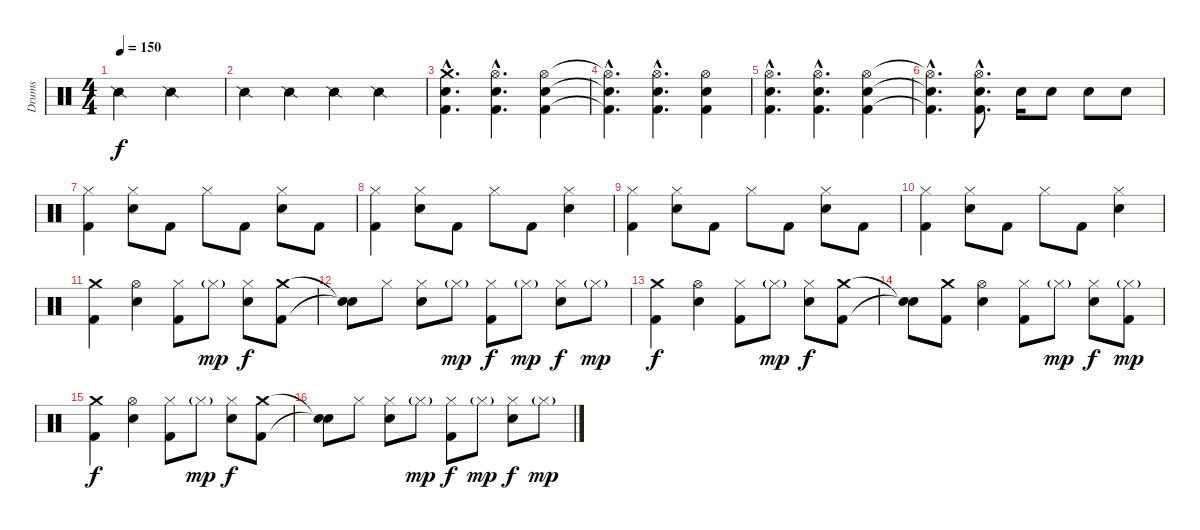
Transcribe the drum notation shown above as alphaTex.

\track ("Drums" "Drums") {instrument percussion}
\staff {score}
\articulation defaults
\ts (4 4)
\tempo 150
\clef neutral
\ks c "Snare (side stick) 2".2{dy f} "Snare (side stick) 2".2
|
"Snare (side stick) 2".4 "Snare (side stick) 2".4 "Snare (side stick) 2".4 "Snare (side stick) 2".4 |
("Crash medium (hit)"{hac} "Electric Snare (hit)"{hac} "Kick (hit) 2"{hac}).4{d} ("Hi-Hat (open)"{hac} "Electric Snare (hit)"{hac} "Kick (hit) 2"{hac}).4{d} ("Hi-Hat (open)" "Electric Snare (hit)" "Kick (hit) 2").4 |
("Hi-Hat (open)"{hac t} "Electric Snare (hit)"{hac t} "Kick (hit) 2"{hac t}).4{d} ("Hi-Hat (open)"{hac} "Electric Snare (hit)"{hac} "Kick (hit) 2"{hac}).4{d} ("Hi-Hat (open)" "Electric Snare (hit)" "Kick (hit) 2").4 |
("Hi-Hat (open)"{hac} "Electric Snare (hit)"{hac} "Kick (hit) 2"{hac}).4{d} ("Hi-Hat (open)"{hac} "Electric Snare (hit)"{hac} "Kick (hit) 2"{hac}).4{d} ("Hi-Hat (open)" "Electric Snare (hit)" "Kick (hit) 2").4 |
("Hi-Hat (open)"{hac t} "Electric Snare (hit)"{hac t} "Kick (hit) 2"{hac t}).4{d} ("Hi-Hat (open)"{hac} "Electric Snare (hit)"{hac} "Kick (hit) 2"{hac}).8{d} "Electric Snare (hit)".16 "Electric Snare (hit)".8 "Electric Snare (hit)".8 "Electric Snare (hit)".8 |
("Hi-Hat (closed)" "Kick (hit) 2").4 ("Hi-Hat (closed)" "Electric Snare (hit)").8 "Kick (hit) 2".8 "Hi-Hat (closed)".8 "Kick (hit) 2".8 ("Hi-Hat (closed)" "Electric Snare (hit)").8 "Kick (hit) 2".8 |
("Hi-Hat (closed)" "Kick (hit) 2").4 ("Hi-Hat (closed)" "Electric Snare (hit)").8 "Kick (hit) 2".8 "Hi-Hat (closed)".8 "Kick (hit) 2".8 ("Hi-Hat (closed)" "Electric Snare (hit)").4 |
("Hi-Hat (closed)" "Kick (hit) 2").4 ("Hi-Hat (closed)" "Electric Snare (hit)").8 "Kick (hit) 2".8 "Hi-Hat (closed)".8 "Kick (hit) 2".8 ("Hi-Hat (closed)" "Electric Snare (hit)").8 "Kick (hit) 2".8 |
("Hi-Hat (closed)" "Kick (hit) 2").4 ("Hi-Hat (closed)" "Electric Snare (hit)").8 "Kick (hit) 2".8 "Hi-Hat (closed)".8 "Kick (hit) 2".8 ("Hi-Hat (closed)" "Electric Snare (hit)").4 |
("Crash medium (hit)" "Kick (hit) 2").4 ("Hi-Hat (open)" "Electric Snare (hit)").4 ("Hi-Hat (closed)" "Kick (hit) 2").8 "Hi-Hat (closed)"{g}.8{dy mp} ("Hi-Hat (closed)" "Electric Snare (hit)").8{dy f} ("Crash medium (hit)" "Kick (hit) 2").8 |
("Snare (hit)"{t} "Snare (hit)"{t}).8 "Hi-Hat (closed)".8 ("Hi-Hat (closed)" "Electric Snare (hit)").8 "Hi-Hat (closed)"{g}.8{dy mp} ("Hi-Hat (closed)" "Kick (hit) 2").8{dy f} "Hi-Hat (closed)"{g}.8{dy mp} ("Hi-Hat (closed)" "Electric Snare (hit)").8{dy f} "Hi-Hat (closed)"{g}.8{dy mp} |
("Crash medium (hit)" "Kick (hit) 2").4{dy f} ("Hi-Hat (open)" "Electric Snare (hit)").4 ("Hi-Hat (closed)" "Kick (hit) 2").8 "Hi-Hat (closed)"{g}.8{dy mp} ("Hi-Hat (closed)" "Electric Snare (hit)").8{dy f} ("Crash medium (hit)" "Kick (hit) 2").8 |
("Snare (hit)"{t} "Snare (hit)"{t}).8 ("Crash medium (hit)" "Kick (hit) 2").8 ("Hi-Hat (open)" "Electric Snare (hit)").4 ("Hi-Hat (closed)" "Kick (hit) 2").8 "Hi-Hat (closed)"{g}.8{dy mp} ("Hi-Hat (closed)" "Electric Snare (hit)").8{dy f} ("Hi-Hat (closed)"{g} "Kick (hit) 2").8{dy mp} |
("Crash medium (hit)" "Kick (hit) 2").4{dy f} ("Hi-Hat (open)" "Electric Snare (hit)").4 ("Hi-Hat (closed)" "Kick (hit) 2").8 "Hi-Hat (closed)"{g}.8{dy mp} ("Hi-Hat (closed)" "Electric Snare (hit)").8{dy f} ("Crash medium (hit)" "Kick (hit) 2").8 |
("Snare (hit)"{t} "Snare (hit)"{t}).8 "Hi-Hat (closed)".8 ("Hi-Hat (closed)" "Electric Snare (hit)").8 "Hi-Hat (closed)"{g}.8{dy mp} ("Hi-Hat (closed)" "Kick (hit) 2").8{dy f} "Hi-Hat (closed)"{g}.8{dy mp} ("Hi-Hat (closed)" "Electric Snare (hit)").8{dy f} "Hi-Hat (closed)"{g}.8{dy mp}
